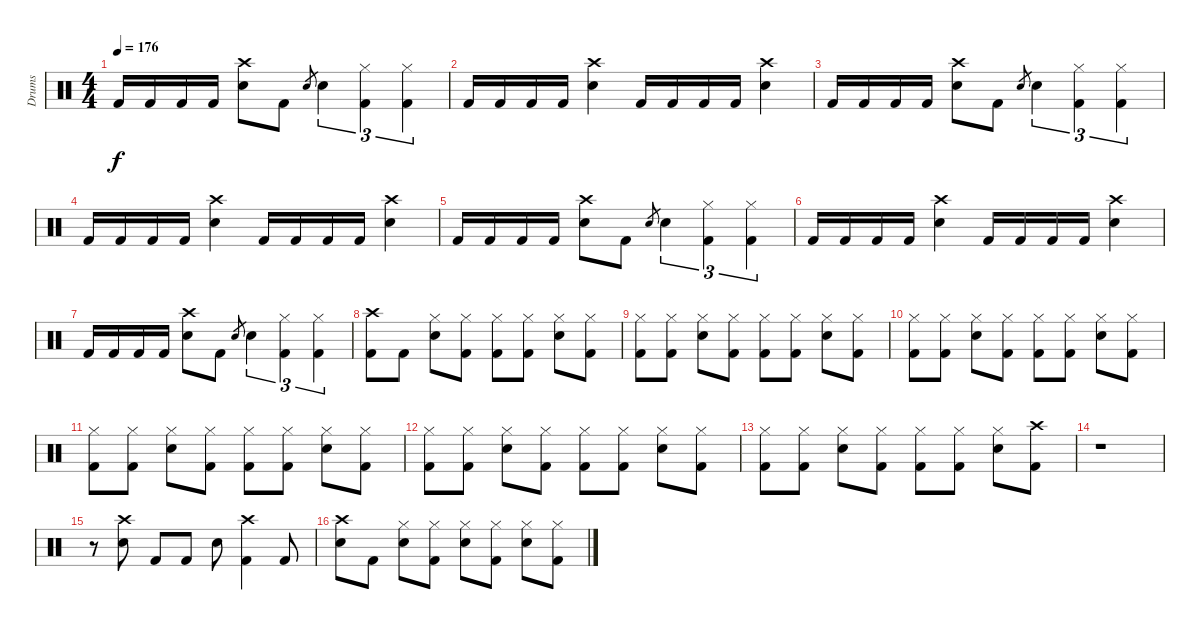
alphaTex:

\track ("Drums" "Drums") {instrument percussion}
\staff {score}
\articulation defaults
\ts (4 4)
\tempo 176
\clef neutral
\ks c "Kick (hit) 2".16{dy f} "Kick (hit) 2".16 "Kick (hit) 2".16 "Kick (hit) 2".16
("Crash high (hit)" "Electric Snare (hit)").8 "Kick (hit) 2".8 "Electric Snare (hit)".8{gr} "Electric Snare (hit)".4{tu (3 2)} ("Hi-Hat (closed)" "Kick (hit) 2").4{tu (3 2)} ("Hi-Hat (closed)" "Kick (hit) 2").4{tu (3 2)} |
"Kick (hit) 2".16 "Kick (hit) 2".16 "Kick (hit) 2".16 "Kick (hit) 2".16 ("Crash high (hit)" "Electric Snare (hit)").4 "Kick (hit) 2".16 "Kick (hit) 2".16 "Kick (hit) 2".16 "Kick (hit) 2".16 ("Crash high (hit)" "Electric Snare (hit)").4 |
"Kick (hit) 2".16 "Kick (hit) 2".16 "Kick (hit) 2".16 "Kick (hit) 2".16 ("Crash high (hit)" "Electric Snare (hit)").8 "Kick (hit) 2".8 "Electric Snare (hit)".8{gr} "Electric Snare (hit)".4{tu (3 2)} ("Hi-Hat (closed)" "Kick (hit) 2").4{tu (3 2)} ("Hi-Hat (closed)" "Kick (hit) 2").4{tu (3 2)} |
"Kick (hit) 2".16 "Kick (hit) 2".16 "Kick (hit) 2".16 "Kick (hit) 2".16 ("Crash high (hit)" "Electric Snare (hit)").4 "Kick (hit) 2".16 "Kick (hit) 2".16 "Kick (hit) 2".16 "Kick (hit) 2".16 ("Crash high (hit)" "Electric Snare (hit)").4 |
"Kick (hit) 2".16 "Kick (hit) 2".16 "Kick (hit) 2".16 "Kick (hit) 2".16 ("Crash high (hit)" "Electric Snare (hit)").8 "Kick (hit) 2".8 "Electric Snare (hit)".8{gr} "Electric Snare (hit)".4{tu (3 2)} ("Hi-Hat (closed)" "Kick (hit) 2").4{tu (3 2)} ("Hi-Hat (closed)" "Kick (hit) 2").4{tu (3 2)} |
"Kick (hit) 2".16 "Kick (hit) 2".16 "Kick (hit) 2".16 "Kick (hit) 2".16 ("Crash high (hit)" "Electric Snare (hit)").4 "Kick (hit) 2".16 "Kick (hit) 2".16 "Kick (hit) 2".16 "Kick (hit) 2".16 ("Crash high (hit)" "Electric Snare (hit)").4 |
"Kick (hit) 2".16 "Kick (hit) 2".16 "Kick (hit) 2".16 "Kick (hit) 2".16 ("Crash high (hit)" "Electric Snare (hit)").8 "Kick (hit) 2".8 "Electric Snare (hit)".8{gr} "Electric Snare (hit)".4{tu (3 2)} ("Hi-Hat (closed)" "Kick (hit) 2").4{tu (3 2)} ("Hi-Hat (closed)" "Kick (hit) 2").4{tu (3 2)} |
("Crash high (hit)" "Kick (hit) 2").8 "Kick (hit) 2".8 ("Hi-Hat (closed)" "Electric Snare (hit)").8 ("Hi-Hat (closed)" "Kick (hit) 2").8 ("Hi-Hat (closed)" "Kick (hit) 2").8 ("Hi-Hat (closed)" "Kick (hit) 2").8 ("Hi-Hat (closed)" "Electric Snare (hit)").8 ("Hi-Hat (closed)" "Kick (hit) 2").8 |
("Hi-Hat (closed)" "Kick (hit) 2").8 ("Hi-Hat (closed)" "Kick (hit) 2").8 ("Hi-Hat (closed)" "Electric Snare (hit)").8 ("Hi-Hat (closed)" "Kick (hit) 2").8 ("Hi-Hat (closed)" "Kick (hit) 2").8 ("Hi-Hat (closed)" "Kick (hit) 2").8 ("Hi-Hat (closed)" "Electric Snare (hit)").8 ("Hi-Hat (closed)" "Kick (hit) 2").8 |
("Hi-Hat (closed)" "Kick (hit) 2").8 ("Hi-Hat (closed)" "Kick (hit) 2").8 ("Hi-Hat (closed)" "Electric Snare (hit)").8 ("Hi-Hat (closed)" "Kick (hit) 2").8 ("Hi-Hat (closed)" "Kick (hit) 2").8 ("Hi-Hat (closed)" "Kick (hit) 2").8 ("Hi-Hat (closed)" "Electric Snare (hit)").8 ("Hi-Hat (closed)" "Kick (hit) 2").8 |
("Hi-Hat (closed)" "Kick (hit) 2").8 ("Hi-Hat (closed)" "Kick (hit) 2").8 ("Hi-Hat (closed)" "Electric Snare (hit)").8 ("Hi-Hat (closed)" "Kick (hit) 2").8 ("Hi-Hat (closed)" "Kick (hit) 2").8 ("Hi-Hat (closed)" "Kick (hit) 2").8 ("Hi-Hat (closed)" "Electric Snare (hit)").8 ("Hi-Hat (closed)" "Kick (hit) 2").8 |
("Hi-Hat (closed)" "Kick (hit) 2").8 ("Hi-Hat (closed)" "Kick (hit) 2").8 ("Hi-Hat (closed)" "Electric Snare (hit)").8 ("Hi-Hat (closed)" "Kick (hit) 2").8 ("Hi-Hat (closed)" "Kick (hit) 2").8 ("Hi-Hat (closed)" "Kick (hit) 2").8 ("Hi-Hat (closed)" "Electric Snare (hit)").8 ("Hi-Hat (closed)" "Kick (hit) 2").8 |
("Hi-Hat (closed)" "Kick (hit) 2").8 ("Hi-Hat (closed)" "Kick (hit) 2").8 ("Hi-Hat (closed)" "Electric Snare (hit)").8 ("Hi-Hat (closed)" "Kick (hit) 2").8 ("Hi-Hat (closed)" "Kick (hit) 2").8 ("Hi-Hat (closed)" "Kick (hit) 2").8 ("Hi-Hat (closed)" "Electric Snare (hit)").8 ("Crash high (hit)" "Kick (hit) 2").8 |
r.1 |
r.8 ("Crash high (hit)" "Electric Snare (hit)").8 "Kick (hit) 2".8 "Kick (hit) 2".8 "Electric Snare (hit)".8 ("Crash high (hit)" "Kick (hit) 2").4 "Kick (hit) 2".8 |
("Crash high (hit)" "Electric Snare (hit)").8 "Kick (hit) 2".8 ("Hi-Hat (closed)" "Electric Snare (hit)").8 ("Hi-Hat (closed)" "Kick (hit) 2").8 ("Hi-Hat (closed)" "Electric Snare (hit)").8 ("Hi-Hat (closed)" "Kick (hit) 2").8 ("Hi-Hat (closed)" "Electric Snare (hit)").8 ("Hi-Hat (closed)" "Kick (hit) 2").8
